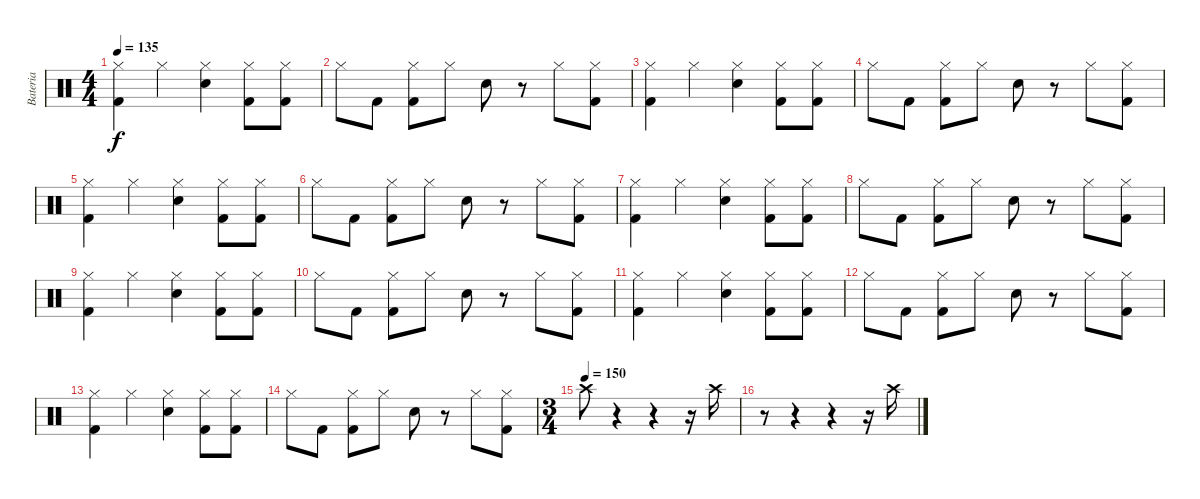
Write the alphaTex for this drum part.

\track ("Bateria" "Bateria") {instrument percussion}
\staff {score}
\articulation defaults
\ts (4 4)
\tempo 135
\clef neutral
\ks c
("Kick (hit) 2" "Hi-Hat (closed)").4{dy f} "Hi-Hat (closed)".4 ("Snare (hit) 2" "Hi-Hat (closed)").4 ("Kick (hit) 2" "Hi-Hat (closed)").8 ("Kick (hit) 2" "Hi-Hat (closed)").8 |
"Hi-Hat (closed)".8 "Kick (hit) 2".8 ("Kick (hit) 2" "Hi-Hat (closed)").8 "Hi-Hat (closed)".8 "Snare (hit) 2".8 r.8 "Hi-Hat (closed)".8 ("Kick (hit) 2" "Hi-Hat (closed)").8 |
("Kick (hit) 2" "Hi-Hat (closed)").4 "Hi-Hat (closed)".4 ("Snare (hit) 2" "Hi-Hat (closed)").4 ("Kick (hit) 2" "Hi-Hat (closed)").8 ("Kick (hit) 2" "Hi-Hat (closed)").8 |
"Hi-Hat (closed)".8 "Kick (hit) 2".8 ("Kick (hit) 2" "Hi-Hat (closed)").8 "Hi-Hat (closed)".8 "Snare (hit) 2".8 r.8 "Hi-Hat (closed)".8 ("Kick (hit) 2" "Hi-Hat (closed)").8 |
("Kick (hit) 2" "Hi-Hat (closed)").4 "Hi-Hat (closed)".4 ("Snare (hit) 2" "Hi-Hat (closed)").4 ("Kick (hit) 2" "Hi-Hat (closed)").8 ("Kick (hit) 2" "Hi-Hat (closed)").8 |
"Hi-Hat (closed)".8 "Kick (hit) 2".8 ("Kick (hit) 2" "Hi-Hat (closed)").8 "Hi-Hat (closed)".8 "Snare (hit) 2".8 r.8 "Hi-Hat (closed)".8 ("Kick (hit) 2" "Hi-Hat (closed)").8 |
("Kick (hit) 2" "Hi-Hat (closed)").4 "Hi-Hat (closed)".4 ("Snare (hit) 2" "Hi-Hat (closed)").4 ("Kick (hit) 2" "Hi-Hat (closed)").8 ("Kick (hit) 2" "Hi-Hat (closed)").8 |
"Hi-Hat (closed)".8 "Kick (hit) 2".8 ("Kick (hit) 2" "Hi-Hat (closed)").8 "Hi-Hat (closed)".8 "Snare (hit) 2".8 r.8 "Hi-Hat (closed)".8 ("Kick (hit) 2" "Hi-Hat (closed)").8 |
("Kick (hit) 2" "Hi-Hat (closed)").4 "Hi-Hat (closed)".4 ("Snare (hit) 2" "Hi-Hat (closed)").4 ("Kick (hit) 2" "Hi-Hat (closed)").8 ("Kick (hit) 2" "Hi-Hat (closed)").8 |
"Hi-Hat (closed)".8 "Kick (hit) 2".8 ("Kick (hit) 2" "Hi-Hat (closed)").8 "Hi-Hat (closed)".8 "Snare (hit) 2".8 r.8 "Hi-Hat (closed)".8 ("Kick (hit) 2" "Hi-Hat (closed)").8 |
("Kick (hit) 2" "Hi-Hat (closed)").4 "Hi-Hat (closed)".4 ("Snare (hit) 2" "Hi-Hat (closed)").4 ("Kick (hit) 2" "Hi-Hat (closed)").8 ("Kick (hit) 2" "Hi-Hat (closed)").8 |
"Hi-Hat (closed)".8 "Kick (hit) 2".8 ("Kick (hit) 2" "Hi-Hat (closed)").8 "Hi-Hat (closed)".8 "Snare (hit) 2".8 r.8 "Hi-Hat (closed)".8 ("Kick (hit) 2" "Hi-Hat (closed)").8 |
("Kick (hit) 2" "Hi-Hat (closed)").4 "Hi-Hat (closed)".4 ("Snare (hit) 2" "Hi-Hat (closed)").4 ("Kick (hit) 2" "Hi-Hat (closed)").8 ("Kick (hit) 2" "Hi-Hat (closed)").8 |
"Hi-Hat (closed)".8 "Kick (hit) 2".8 ("Kick (hit) 2" "Hi-Hat (closed)").8 "Hi-Hat (closed)".8 "Snare (hit) 2".8 r.8 "Hi-Hat (closed)".8 ("Kick (hit) 2" "Hi-Hat (closed)").8 |
\ts (3 4)
\tempo (150)
"Crash high (hit)".8 r.4 r.4 r.16 "Crash high (hit)".16 |
r.8 r.4 r.4 r.16 "Crash high (hit)".16
